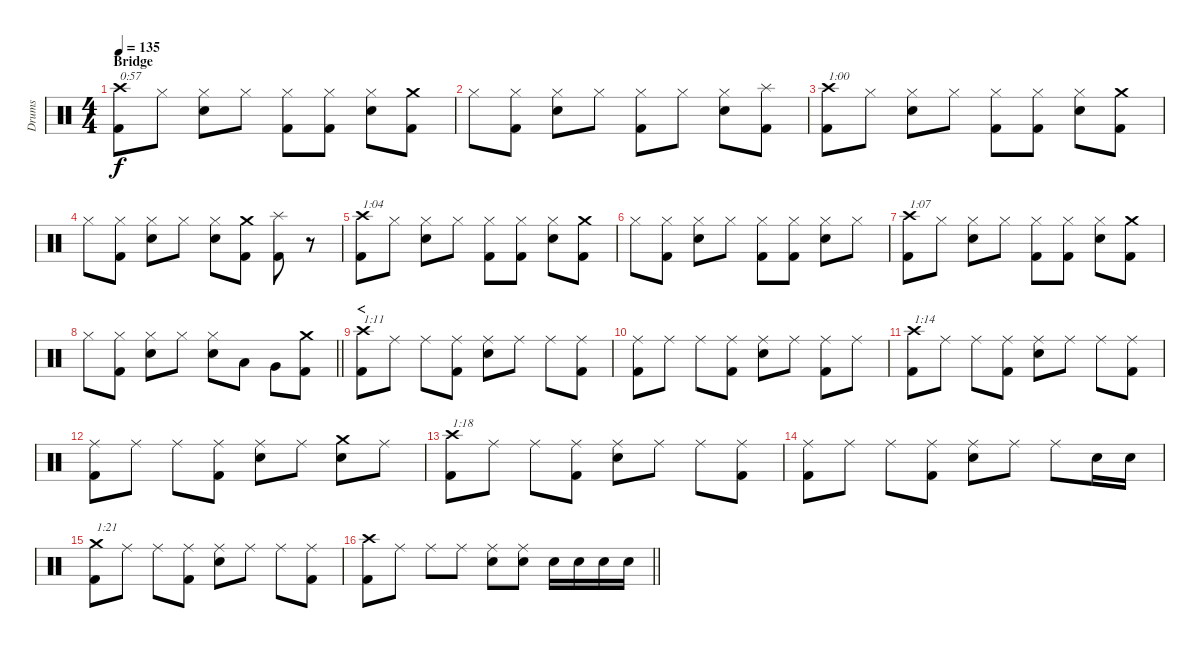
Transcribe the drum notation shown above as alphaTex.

\track ("Drums" "Drums") {instrument percussion}
\staff {score}
\articulation defaults
\ts (4 4)
\section ("" "Bridge")
\tempo 135
\clef neutral
\ks c
("Crash high (hit)" "Kick (hit) 2").8{txt "0:57" dy f} "Hi-Hat (closed)".8 ("Hi-Hat (closed)" "Electric Snare (hit)").8 "Hi-Hat (closed)".8 ("Hi-Hat (closed)" "Kick (hit) 2").8 ("Hi-Hat (closed)" "Kick (hit) 2").8 ("Hi-Hat (closed)" "Electric Snare (hit)").8 ("Crash medium (hit)" "Kick (hit) 2").8 |
"Hi-Hat (closed)".8 ("Hi-Hat (closed)" "Kick (hit) 2").8 ("Hi-Hat (closed)" "Electric Snare (hit)").8 "Hi-Hat (closed)".8 ("Hi-Hat (closed)" "Kick (hit) 2").8 "Hi-Hat (closed)".8 ("Hi-Hat (closed)" "Electric Snare (hit)").8 ("Splash (hit)" "Kick (hit) 2").8 |
("Crash high (hit)" "Kick (hit) 2").8{txt "1:00"} "Hi-Hat (closed)".8 ("Hi-Hat (closed)" "Electric Snare (hit)").8 "Hi-Hat (closed)".8 ("Hi-Hat (closed)" "Kick (hit) 2").8 ("Hi-Hat (closed)" "Kick (hit) 2").8 ("Hi-Hat (closed)" "Electric Snare (hit)").8 ("Crash medium (hit)" "Kick (hit) 2").8 |
"Hi-Hat (closed)".8 ("Hi-Hat (closed)" "Kick (hit) 2").8 ("Hi-Hat (closed)" "Electric Snare (hit)").8 "Hi-Hat (closed)".8 ("Hi-Hat (closed)" "Electric Snare (hit)").8 ("Crash medium (hit)" "Kick (hit) 2").8 ("Splash (hit)" "Kick (hit) 2").8 r.8 |
("Crash high (hit)" "Kick (hit) 2").8{txt "1:04"} "Hi-Hat (closed)".8 ("Hi-Hat (closed)" "Electric Snare (hit)").8 "Hi-Hat (closed)".8 ("Hi-Hat (closed)" "Kick (hit) 2").8 ("Hi-Hat (closed)" "Kick (hit) 2").8 ("Hi-Hat (closed)" "Electric Snare (hit)").8 ("Crash medium (hit)" "Kick (hit) 2").8 |
"Hi-Hat (closed)".8 ("Hi-Hat (closed)" "Kick (hit) 2").8 ("Hi-Hat (closed)" "Electric Snare (hit)").8 "Hi-Hat (closed)".8 ("Hi-Hat (closed)" "Kick (hit) 2").8 ("Hi-Hat (closed)" "Kick (hit) 2").8 ("Hi-Hat (closed)" "Electric Snare (hit)").8 "Hi-Hat (closed)".8 |
("Crash high (hit)" "Kick (hit) 2").8{txt "1:07"} "Hi-Hat (closed)".8 ("Hi-Hat (closed)" "Electric Snare (hit)").8 "Hi-Hat (closed)".8 ("Hi-Hat (closed)" "Kick (hit) 2").8 ("Hi-Hat (closed)" "Kick (hit) 2").8 ("Hi-Hat (closed)" "Electric Snare (hit)").8 ("Crash medium (hit)" "Kick (hit) 2").8 |
\barLineRight lightlight "Hi-Hat (closed)".8
("Hi-Hat (closed)" "Kick (hit) 2").8 ("Hi-Hat (closed)" "Electric Snare (hit)").8 "Hi-Hat (closed)".8 ("Hi-Hat (closed)" "Electric Snare (hit)").8 "Low Tom (hit)".8 "Very Low Tom (hit)".8 ("Crash medium (hit)" "Kick (hit) 2").8 |
\section ("" "<")
("Crash high (hit)" "Kick (hit) 2").8{txt "1:11"} "Ride (middle)".8 "Ride (middle)".8 ("Ride (middle)" "Kick (hit) 2").8 ("Ride (middle)" "Electric Snare (hit)").8 "Ride (middle)".8 "Ride (middle)".8 ("Ride (middle)" "Kick (hit) 2").8 |
("Ride (middle)" "Kick (hit) 2").8 "Ride (middle)".8 "Ride (middle)".8 ("Ride (middle)" "Kick (hit) 2").8 ("Ride (middle)" "Electric Snare (hit)").8 "Ride (middle)".8 ("Ride (middle)" "Kick (hit) 2").8 "Ride (middle)".8 |
("Crash high (hit)" "Kick (hit) 2").8{txt "1:14"} "Ride (middle)".8 "Ride (middle)".8 ("Ride (middle)" "Kick (hit) 2").8 ("Ride (middle)" "Electric Snare (hit)").8 "Ride (middle)".8 "Ride (middle)".8 ("Ride (middle)" "Kick (hit) 2").8 |
("Ride (middle)" "Kick (hit) 2").8 "Ride (middle)".8 "Ride (middle)".8 ("Ride (middle)" "Kick (hit) 2").8 ("Ride (middle)" "Electric Snare (hit)").8 "Ride (middle)".8 ("Crash medium (hit)" "Electric Snare (hit)").8 "Ride (middle)".8 |
("Crash high (hit)" "Kick (hit) 2").8{txt "1:18"} "Ride (middle)".8 "Ride (middle)".8 ("Ride (middle)" "Kick (hit) 2").8 ("Ride (middle)" "Electric Snare (hit)").8 "Ride (middle)".8 "Ride (middle)".8 ("Ride (middle)" "Kick (hit) 2").8 |
("Ride (middle)" "Kick (hit) 2").8 "Ride (middle)".8 "Ride (middle)".8 ("Ride (middle)" "Kick (hit) 2").8 ("Ride (middle)" "Electric Snare (hit)").8 "Ride (middle)".8 "Ride (middle)".8 "Electric Snare (hit)".16 "Electric Snare (hit)".16 |
("Crash medium (hit)" "Kick (hit) 2").8{txt "1:21"} "Ride (middle)".8 "Ride (middle)".8 ("Ride (middle)" "Kick (hit) 2").8 ("Ride (middle)" "Electric Snare (hit)").8 "Ride (middle)".8 "Ride (middle)".8 ("Ride (middle)" "Kick (hit) 2").8 |
\barLineRight lightlight
("Crash high (hit)" "Kick (hit) 2").8 "Ride (middle)".8 "Ride (middle)".8 "Ride (middle)".8 ("Ride (middle)" "Electric Snare (hit)").8 ("Ride (middle)" "Electric Snare (hit)").8 "Electric Snare (hit)".16 "Electric Snare (hit)".16 "Electric Snare (hit)".16 "Electric Snare (hit)".16
